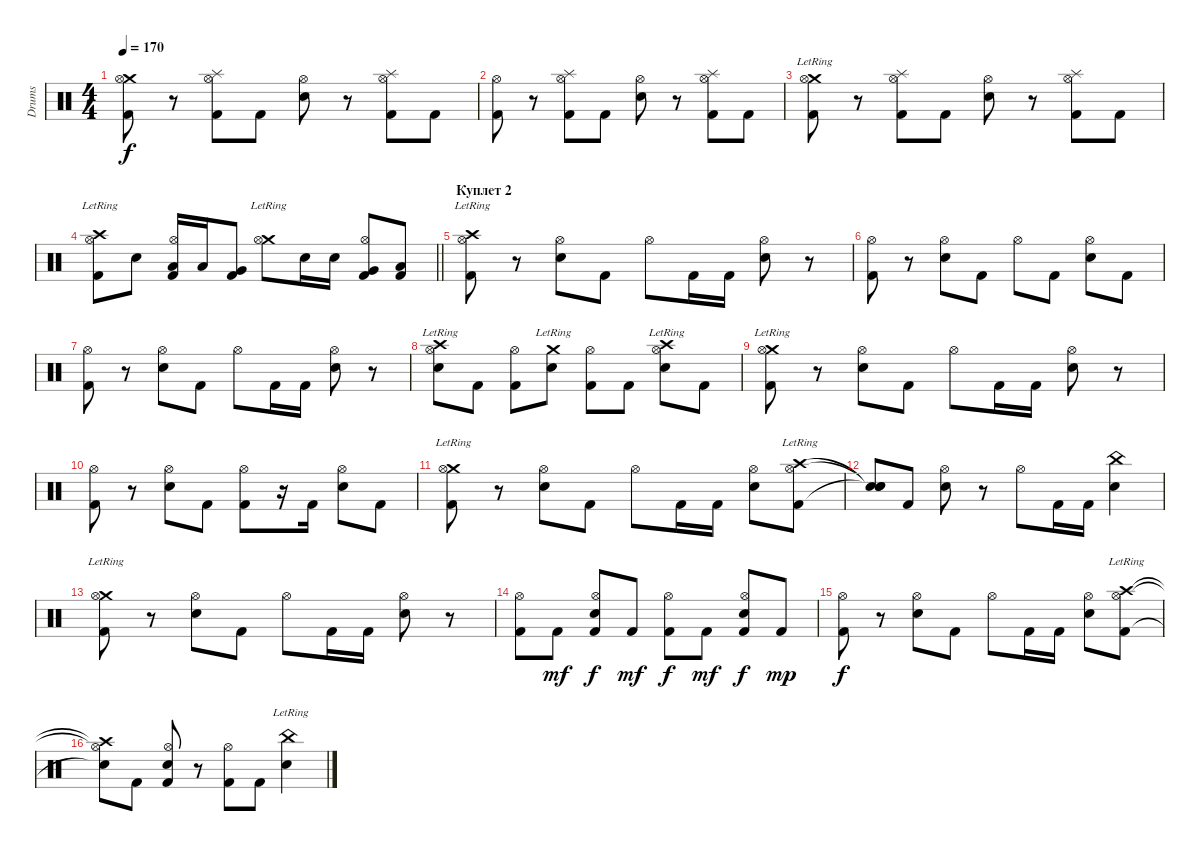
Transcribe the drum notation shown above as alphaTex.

\track ("Drums" "Drums") {instrument percussion}
\staff {score}
\articulation defaults
\ts (4 4)
\tempo 170
\clef neutral
\ks c
("Crash medium (hit)" "Kick (hit) 2" "Hi-Hat (open)").8{dy f} r.8 ("Splash (hit)" "Kick (hit) 2" "Hi-Hat (open)").8 "Kick (hit) 2".8 ("Electric Snare (hit)" "Hi-Hat (open)").8 r.8 ("Splash (hit)" "Kick (hit) 2" "Hi-Hat (open)").8 "Kick (hit) 2".8 |
("Kick (hit) 2" "Hi-Hat (open)").8 r.8 ("Splash (hit)" "Kick (hit) 2" "Hi-Hat (open)").8 "Kick (hit) 2".8 ("Electric Snare (hit)" "Hi-Hat (open)").8 r.8 ("Splash (hit)" "Kick (hit) 2" "Hi-Hat (open)").8 "Kick (hit) 2".8 |
("Crash medium (hit)"{lr} "Kick (hit) 2" "Hi-Hat (open)").8 r.8 ("Splash (hit)" "Kick (hit) 2" "Hi-Hat (open)").8 "Kick (hit) 2".8 ("Electric Snare (hit)" "Hi-Hat (open)").8 r.8 ("Splash (hit)" "Kick (hit) 2" "Hi-Hat (open)").8 "Kick (hit) 2".8 |
\barLineRight lightlight
("Crash high (hit)"{lr} "Kick (hit) 2" "Hi-Hat (open)").8 "Electric Snare (hit)".8 ("Low Tom (hit)" "Kick (hit) 2" "Hi-Hat (open)").16 "Low Tom (hit)".16 ("Very Low Tom (hit)" "Kick (hit) 2").8 ("Crash medium (hit)"{lr} "Hi-Hat (open)").8 "Electric Snare (hit)".16 "Electric Snare (hit)".16 ("Very Low Tom (hit)" "Kick (hit) 2" "Hi-Hat (open)").8 ("Low Floor Tom (hit)" "Kick (hit) 2").8 |
\section ("" "Куплет 2")
("Crash high (hit)"{lr} "Kick (hit) 2" "Hi-Hat (open)").8 r.8 ("Electric Snare (hit)" "Hi-Hat (open)").8 "Kick (hit) 2".8 "Hi-Hat (open)".8 "Kick (hit) 2".16 "Kick (hit) 2".16 ("Electric Snare (hit)" "Hi-Hat (open)").8 r.8 |
("Kick (hit) 2" "Hi-Hat (open)").8 r.8 ("Electric Snare (hit)" "Hi-Hat (open)").8 "Kick (hit) 2".8 "Hi-Hat (open)".8 "Kick (hit) 2".8 ("Electric Snare (hit)" "Hi-Hat (open)").8 "Kick (hit) 2".8 |
("Kick (hit) 2" "Hi-Hat (open)").8 r.8 ("Electric Snare (hit)" "Hi-Hat (open)").8 "Kick (hit) 2".8 "Hi-Hat (open)".8 "Kick (hit) 2".16 "Kick (hit) 2".16 ("Electric Snare (hit)" "Hi-Hat (open)").8 r.8 |
("Crash high (hit)"{lr} "Electric Snare (hit)" "Hi-Hat (open)").8 "Kick (hit) 2".8 ("Kick (hit) 2" "Hi-Hat (open)").8 ("Crash medium (hit)"{lr} "Electric Snare (hit)").8 ("Kick (hit) 2" "Hi-Hat (open)").8 "Kick (hit) 2".8 ("Crash high (hit)"{lr} "Electric Snare (hit)" "Hi-Hat (open)").8 "Kick (hit) 2".8 |
("Crash medium (hit)"{lr} "Kick (hit) 2" "Hi-Hat (open)").8 r.8 ("Electric Snare (hit)" "Hi-Hat (open)").8 "Kick (hit) 2".8 "Hi-Hat (open)".8 "Kick (hit) 2".16 "Kick (hit) 2".16 ("Electric Snare (hit)" "Hi-Hat (open)").8 r.8 |
("Kick (hit) 2" "Hi-Hat (open)").8 r.8 ("Electric Snare (hit)" "Hi-Hat (open)").8 "Kick (hit) 2".8 ("Kick (hit) 2" "Hi-Hat (open)").8 r.16 "Kick (hit) 2".16 ("Electric Snare (hit)" "Hi-Hat (open)").8 "Kick (hit) 2".8 |
("Crash medium (hit)"{lr} "Kick (hit) 2" "Hi-Hat (open)").8 r.8 ("Electric Snare (hit)" "Hi-Hat (open)").8 "Kick (hit) 2".8 "Hi-Hat (open)".8 "Kick (hit) 2".16 "Kick (hit) 2".16 ("Electric Snare (hit)" "Hi-Hat (open)").8 ("Crash high (hit)"{lr} "Kick (hit) 2" "Hi-Hat (open)").8 |
("Snare (hit)"{t} "Snare (hit)"{t} "Snare (hit)"{t}).8 "Kick (hit) 2".8 ("Electric Snare (hit)" "Hi-Hat (open)").8 r.8 "Hi-Hat (open)".8 "Kick (hit) 2".16 "Kick (hit) 2".16 ("China (hit)" "Electric Snare (hit)").4 |
("Crash medium (hit)"{lr} "Kick (hit) 2" "Hi-Hat (open)").8 r.8 ("Electric Snare (hit)" "Hi-Hat (open)").8 "Kick (hit) 2".8 "Hi-Hat (open)".8 "Kick (hit) 2".16 "Kick (hit) 2".16 ("Electric Snare (hit)" "Hi-Hat (open)").8 r.8 |
("Kick (hit) 2" "Hi-Hat (open)").8 "Kick (hit) 2".8{dy mf} ("Electric Snare (hit)" "Kick (hit) 2" "Hi-Hat (open)").8{dy f} "Kick (hit) 2".8{dy mf} ("Kick (hit) 2" "Hi-Hat (open)").8{dy f} "Kick (hit) 2".8{dy mf} ("Electric Snare (hit)" "Kick (hit) 2" "Hi-Hat (open)").8{dy f} "Kick (hit) 2".8{dy mp} |
("Kick (hit) 2" "Hi-Hat (open)").8{dy f} r.8 ("Electric Snare (hit)" "Hi-Hat (open)").8 "Kick (hit) 2".8 "Hi-Hat (open)".8 "Kick (hit) 2".16 "Kick (hit) 2".16 ("Electric Snare (hit)" "Hi-Hat (open)").8 ("Crash high (hit)"{lr} "Kick (hit) 2" "Hi-Hat (open)").8 |
("Crash high (hit)"{t} "Snare (hit)"{t} "Hi-Hat (open)"{t}).8 "Kick (hit) 2".8 ("Electric Snare (hit)" "Kick (hit) 2" "Hi-Hat (open)").8 r.8 ("Kick (hit) 2" "Hi-Hat (open)").8 "Kick (hit) 2".8 ("China (hit)"{lr} "Electric Snare (hit)").4
